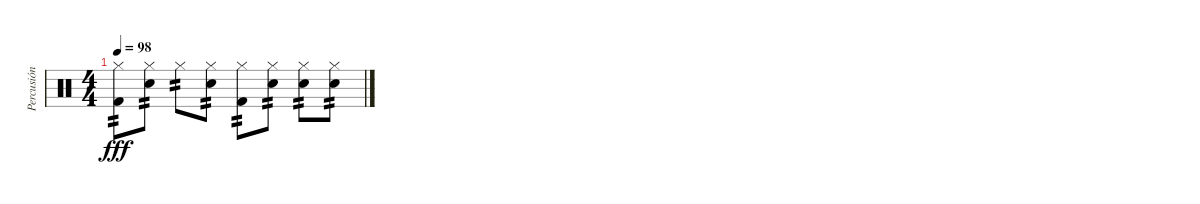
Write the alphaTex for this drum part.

\track ("Percusión" "Percusión") {instrument percussion}
\staff {score}
\articulation defaults
\ts (4 4)
\tempo 98
\clef neutral
\ks c
("Hi-Hat (closed)" "Kick (hit) 2").8{tp 2 dy fff} ("Hi-Hat (closed)" "Snare (hit) 2").8{tp 2} "Hi-Hat (closed)".8{tp 2} ("Hi-Hat (closed)" "Snare (hit) 2").8{tp 2} ("Hi-Hat (closed)" "Kick (hit) 2").8{tp 2} ("Hi-Hat (closed)" "Snare (hit) 2").8{tp 2} ("Hi-Hat (closed)" "Snare (hit) 2").8{tp 2} ("Hi-Hat (closed)" "Snare (hit) 2").8{tp 2}
